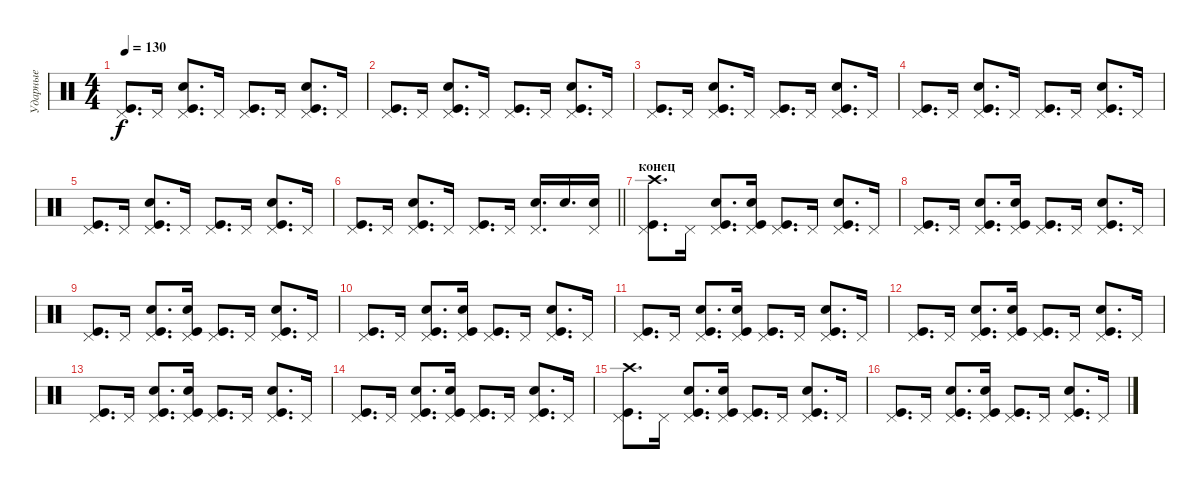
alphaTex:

\track ("Ударные" "Ударные") {instrument percussion}
\staff {score}
\articulation defaults
\ts (4 4)
\tempo 130
\clef neutral
\ks c
("Pedal Hi-Hat (hit)" "Kick (hit)").8{d dy f} "Pedal Hi-Hat (hit)".16 ("Pedal Hi-Hat (hit)" "Kick (hit)" "Snare (hit) 2").8{d} "Pedal Hi-Hat (hit)".16 ("Pedal Hi-Hat (hit)" "Kick (hit)").8{d} "Pedal Hi-Hat (hit)".16 ("Pedal Hi-Hat (hit)" "Kick (hit)" "Snare (hit) 2").8{d} "Pedal Hi-Hat (hit)".16 |
("Pedal Hi-Hat (hit)" "Kick (hit)").8{d} "Pedal Hi-Hat (hit)".16 ("Pedal Hi-Hat (hit)" "Kick (hit)" "Snare (hit) 2").8{d} "Pedal Hi-Hat (hit)".16 ("Pedal Hi-Hat (hit)" "Kick (hit)").8{d} "Pedal Hi-Hat (hit)".16 ("Pedal Hi-Hat (hit)" "Kick (hit)" "Snare (hit) 2").8{d} "Pedal Hi-Hat (hit)".16 |
("Pedal Hi-Hat (hit)" "Kick (hit)").8{d} "Pedal Hi-Hat (hit)".16 ("Pedal Hi-Hat (hit)" "Kick (hit)" "Snare (hit) 2").8{d} "Pedal Hi-Hat (hit)".16 ("Pedal Hi-Hat (hit)" "Kick (hit)").8{d} "Pedal Hi-Hat (hit)".16 ("Pedal Hi-Hat (hit)" "Kick (hit)" "Snare (hit) 2").8{d} "Pedal Hi-Hat (hit)".16 |
("Pedal Hi-Hat (hit)" "Kick (hit)").8{d} "Pedal Hi-Hat (hit)".16 ("Pedal Hi-Hat (hit)" "Kick (hit)" "Snare (hit) 2").8{d} "Pedal Hi-Hat (hit)".16 ("Pedal Hi-Hat (hit)" "Kick (hit)").8{d} "Pedal Hi-Hat (hit)".16 ("Pedal Hi-Hat (hit)" "Kick (hit)" "Snare (hit) 2").8{d} "Pedal Hi-Hat (hit)".16 |
("Pedal Hi-Hat (hit)" "Kick (hit)").8{d} "Pedal Hi-Hat (hit)".16 ("Pedal Hi-Hat (hit)" "Kick (hit)" "Snare (hit) 2").8{d} "Pedal Hi-Hat (hit)".16 ("Pedal Hi-Hat (hit)" "Kick (hit)").8{d} "Pedal Hi-Hat (hit)".16 ("Pedal Hi-Hat (hit)" "Kick (hit)" "Snare (hit) 2").8{d} "Pedal Hi-Hat (hit)".16 |
\barLineRight lightlight
("Pedal Hi-Hat (hit)" "Kick (hit)").8{d} "Pedal Hi-Hat (hit)".16 ("Pedal Hi-Hat (hit)" "Kick (hit)" "Snare (hit) 2").8{d} "Pedal Hi-Hat (hit)".16 ("Pedal Hi-Hat (hit)" "Kick (hit)").8{d} "Pedal Hi-Hat (hit)".16 ("Pedal Hi-Hat (hit)" "Snare (hit) 2").16{d} "Snare (hit) 2".16{d} ("Snare (hit) 2" "Pedal Hi-Hat (hit)").16 |
\section ("" "конец")
("Pedal Hi-Hat (hit)" "Kick (hit)" "Crash high (hit)").8{d} "Pedal Hi-Hat (hit)".16 ("Pedal Hi-Hat (hit)" "Kick (hit)" "Snare (hit) 2").8{d} ("Pedal Hi-Hat (hit)" "Snare (hit) 2" "Kick (hit)").16 ("Pedal Hi-Hat (hit)" "Kick (hit)").8{d} "Pedal Hi-Hat (hit)".16 ("Pedal Hi-Hat (hit)" "Kick (hit)" "Snare (hit) 2").8{d} "Pedal Hi-Hat (hit)".16 |
("Pedal Hi-Hat (hit)" "Kick (hit)").8{d} "Pedal Hi-Hat (hit)".16 ("Pedal Hi-Hat (hit)" "Kick (hit)" "Snare (hit) 2").8{d} ("Pedal Hi-Hat (hit)" "Snare (hit) 2" "Kick (hit)").16 ("Pedal Hi-Hat (hit)" "Kick (hit)").8{d} "Pedal Hi-Hat (hit)".16 ("Pedal Hi-Hat (hit)" "Kick (hit)" "Snare (hit) 2").8{d} "Pedal Hi-Hat (hit)".16 |
("Pedal Hi-Hat (hit)" "Kick (hit)").8{d} "Pedal Hi-Hat (hit)".16 ("Pedal Hi-Hat (hit)" "Kick (hit)" "Snare (hit) 2").8{d} ("Pedal Hi-Hat (hit)" "Snare (hit) 2" "Kick (hit)").16 ("Pedal Hi-Hat (hit)" "Kick (hit)").8{d} "Pedal Hi-Hat (hit)".16 ("Pedal Hi-Hat (hit)" "Kick (hit)" "Snare (hit) 2").8{d} "Pedal Hi-Hat (hit)".16 |
("Pedal Hi-Hat (hit)" "Kick (hit)").8{d} "Pedal Hi-Hat (hit)".16 ("Pedal Hi-Hat (hit)" "Kick (hit)" "Snare (hit) 2").8{d} ("Pedal Hi-Hat (hit)" "Snare (hit) 2" "Kick (hit)").16 ("Pedal Hi-Hat (hit)" "Kick (hit)").8{d} "Pedal Hi-Hat (hit)".16 ("Pedal Hi-Hat (hit)" "Kick (hit)" "Snare (hit) 2").8{d} "Pedal Hi-Hat (hit)".16 |
("Pedal Hi-Hat (hit)" "Kick (hit)").8{d} "Pedal Hi-Hat (hit)".16 ("Pedal Hi-Hat (hit)" "Kick (hit)" "Snare (hit) 2").8{d} ("Pedal Hi-Hat (hit)" "Snare (hit) 2" "Kick (hit)").16 ("Pedal Hi-Hat (hit)" "Kick (hit)").8{d} "Pedal Hi-Hat (hit)".16 ("Pedal Hi-Hat (hit)" "Kick (hit)" "Snare (hit) 2").8{d} "Pedal Hi-Hat (hit)".16 |
("Pedal Hi-Hat (hit)" "Kick (hit)").8{d} "Pedal Hi-Hat (hit)".16 ("Pedal Hi-Hat (hit)" "Kick (hit)" "Snare (hit) 2").8{d} ("Pedal Hi-Hat (hit)" "Snare (hit) 2" "Kick (hit)").16 ("Pedal Hi-Hat (hit)" "Kick (hit)").8{d} "Pedal Hi-Hat (hit)".16 ("Pedal Hi-Hat (hit)" "Kick (hit)" "Snare (hit) 2").8{d} "Pedal Hi-Hat (hit)".16 |
("Pedal Hi-Hat (hit)" "Kick (hit)").8{d} "Pedal Hi-Hat (hit)".16 ("Pedal Hi-Hat (hit)" "Kick (hit)" "Snare (hit) 2").8{d} ("Pedal Hi-Hat (hit)" "Snare (hit) 2" "Kick (hit)").16 ("Pedal Hi-Hat (hit)" "Kick (hit)").8{d} "Pedal Hi-Hat (hit)".16 ("Pedal Hi-Hat (hit)" "Kick (hit)" "Snare (hit) 2").8{d} "Pedal Hi-Hat (hit)".16 |
("Pedal Hi-Hat (hit)" "Kick (hit)").8{d} "Pedal Hi-Hat (hit)".16 ("Pedal Hi-Hat (hit)" "Kick (hit)" "Snare (hit) 2").8{d} ("Pedal Hi-Hat (hit)" "Snare (hit) 2" "Kick (hit)").16 ("Pedal Hi-Hat (hit)" "Kick (hit)").8{d} "Pedal Hi-Hat (hit)".16 ("Pedal Hi-Hat (hit)" "Kick (hit)" "Snare (hit) 2").8{d} "Pedal Hi-Hat (hit)".16 |
("Pedal Hi-Hat (hit)" "Kick (hit)" "Crash high (hit)").8{d} "Pedal Hi-Hat (hit)".16 ("Pedal Hi-Hat (hit)" "Kick (hit)" "Snare (hit) 2").8{d} ("Pedal Hi-Hat (hit)" "Snare (hit) 2" "Kick (hit)").16 ("Pedal Hi-Hat (hit)" "Kick (hit)").8{d} "Pedal Hi-Hat (hit)".16 ("Pedal Hi-Hat (hit)" "Kick (hit)" "Snare (hit) 2").8{d} "Pedal Hi-Hat (hit)".16 |
("Pedal Hi-Hat (hit)" "Kick (hit)").8{d} "Pedal Hi-Hat (hit)".16 ("Pedal Hi-Hat (hit)" "Kick (hit)" "Snare (hit) 2").8{d} ("Pedal Hi-Hat (hit)" "Snare (hit) 2" "Kick (hit)").16 ("Pedal Hi-Hat (hit)" "Kick (hit)").8{d} "Pedal Hi-Hat (hit)".16 ("Pedal Hi-Hat (hit)" "Kick (hit)" "Snare (hit) 2").8{d} "Pedal Hi-Hat (hit)".16
